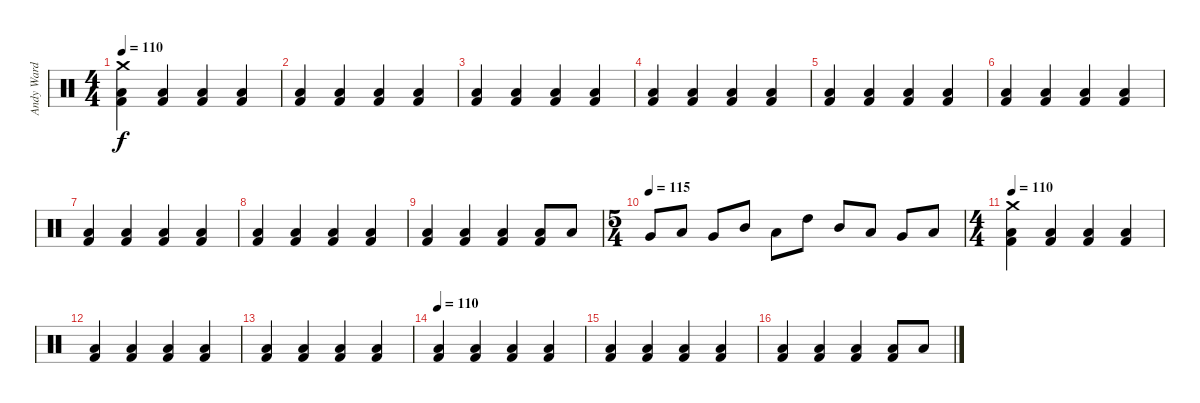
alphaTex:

\track ("Andy Ward - Drums" "Andy Ward ") {instrument percussion}
\staff {score}
\articulation defaults
\ts (4 4)
\tempo 110
\clef neutral
\ks c
("Crash medium (hit)" "Low Floor Tom (hit)" "Kick (hit) 2").4{dy f} ("Low Floor Tom (hit)" "Kick (hit) 2").4 ("Low Floor Tom (hit)" "Kick (hit) 2").4 ("Low Floor Tom (hit)" "Kick (hit) 2").4 |
("Low Floor Tom (hit)" "Kick (hit) 2").4 ("Low Floor Tom (hit)" "Kick (hit) 2").4 ("Low Floor Tom (hit)" "Kick (hit) 2").4 ("Low Floor Tom (hit)" "Kick (hit) 2").4 |
("Low Floor Tom (hit)" "Kick (hit) 2").4 ("Low Floor Tom (hit)" "Kick (hit) 2").4 ("Low Floor Tom (hit)" "Kick (hit) 2").4 ("Low Floor Tom (hit)" "Kick (hit) 2").4 |
("Low Floor Tom (hit)" "Kick (hit) 2").4 ("Low Floor Tom (hit)" "Kick (hit) 2").4 ("Low Floor Tom (hit)" "Kick (hit) 2").4 ("Low Floor Tom (hit)" "Kick (hit) 2").4 |
("Low Floor Tom (hit)" "Kick (hit) 2").4 ("Low Floor Tom (hit)" "Kick (hit) 2").4 ("Low Floor Tom (hit)" "Kick (hit) 2").4 ("Low Floor Tom (hit)" "Kick (hit) 2").4 |
("Low Floor Tom (hit)" "Kick (hit) 2").4 ("Low Floor Tom (hit)" "Kick (hit) 2").4 ("Low Floor Tom (hit)" "Kick (hit) 2").4 ("Low Floor Tom (hit)" "Kick (hit) 2").4 |
("Low Floor Tom (hit)" "Kick (hit) 2").4 ("Low Floor Tom (hit)" "Kick (hit) 2").4 ("Low Floor Tom (hit)" "Kick (hit) 2").4 ("Low Floor Tom (hit)" "Kick (hit) 2").4 |
("Low Floor Tom (hit)" "Kick (hit) 2").4 ("Low Floor Tom (hit)" "Kick (hit) 2").4 ("Low Floor Tom (hit)" "Kick (hit) 2").4 ("Low Floor Tom (hit)" "Kick (hit) 2").4 |
("Low Floor Tom (hit)" "Kick (hit) 2").4 ("Low Floor Tom (hit)" "Kick (hit) 2").4 ("Low Floor Tom (hit)" "Kick (hit) 2").4 ("Low Floor Tom (hit)" "Kick (hit) 2").8 "Low Tom (hit)".8 |
\ts (5 4)
\tempo (115)
"Very Low Tom (hit)".8 "Low Tom (hit)".8 "Very Low Tom (hit)".8 "Mid Tom (hit)".8 "Low Tom (hit)".8 "High Tom (hit)".8 "Mid Tom (hit)".8 "Low Tom (hit)".8 "Very Low Tom (hit)".8 "Low Floor Tom (hit)".8 |
\ts (4 4)
\tempo 110
("Crash medium (hit)" "Low Floor Tom (hit)" "Kick (hit) 2").4 ("Low Floor Tom (hit)" "Kick (hit) 2").4 ("Low Floor Tom (hit)" "Kick (hit) 2").4 ("Low Floor Tom (hit)" "Kick (hit) 2").4 |
("Low Floor Tom (hit)" "Kick (hit) 2").4 ("Low Floor Tom (hit)" "Kick (hit) 2").4 ("Low Floor Tom (hit)" "Kick (hit) 2").4 ("Low Floor Tom (hit)" "Kick (hit) 2").4 |
("Low Floor Tom (hit)" "Kick (hit) 2").4 ("Low Floor Tom (hit)" "Kick (hit) 2").4 ("Low Floor Tom (hit)" "Kick (hit) 2").4 ("Low Floor Tom (hit)" "Kick (hit) 2").4 |
\tempo 110
("Low Floor Tom (hit)" "Kick (hit) 2").4 ("Low Floor Tom (hit)" "Kick (hit) 2").4 ("Low Floor Tom (hit)" "Kick (hit) 2").4 ("Low Floor Tom (hit)" "Kick (hit) 2").4 |
("Low Floor Tom (hit)" "Kick (hit) 2").4 ("Low Floor Tom (hit)" "Kick (hit) 2").4 ("Low Floor Tom (hit)" "Kick (hit) 2").4 ("Low Floor Tom (hit)" "Kick (hit) 2").4 |
("Low Floor Tom (hit)" "Kick (hit) 2").4 ("Low Floor Tom (hit)" "Kick (hit) 2").4 ("Low Floor Tom (hit)" "Kick (hit) 2").4 ("Low Floor Tom (hit)" "Kick (hit) 2").8 "Low Tom (hit)".8
